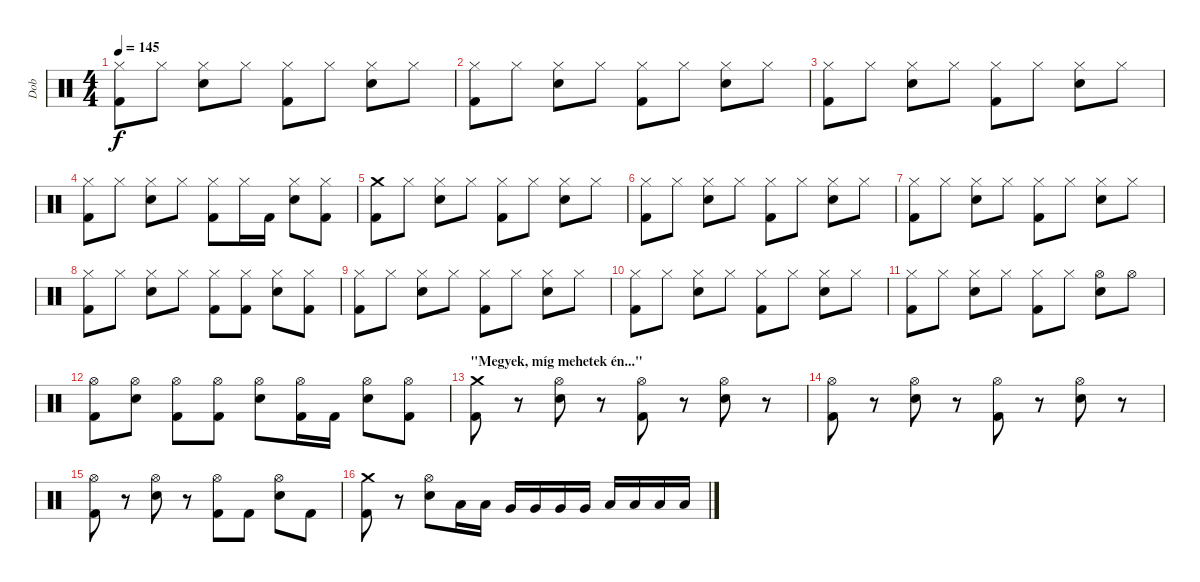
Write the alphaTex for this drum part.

\track ("Dob" "Dob") {instrument percussion}
\staff {score}
\articulation defaults
\ts (4 4)
\tempo 145
\clef neutral
\ks c
("Hi-Hat (closed)" "Kick (hit) 2").8{dy f} "Hi-Hat (closed)".8 ("Hi-Hat (closed)" "Electric Snare (hit)").8 "Hi-Hat (closed)".8 ("Hi-Hat (closed)" "Kick (hit) 2").8 "Hi-Hat (closed)".8 ("Hi-Hat (closed)" "Electric Snare (hit)").8 "Hi-Hat (closed)".8 |
("Hi-Hat (closed)" "Kick (hit) 2").8 "Hi-Hat (closed)".8 ("Hi-Hat (closed)" "Electric Snare (hit)").8 "Hi-Hat (closed)".8 ("Hi-Hat (closed)" "Kick (hit) 2").8 "Hi-Hat (closed)".8 ("Hi-Hat (closed)" "Electric Snare (hit)").8 "Hi-Hat (closed)".8 |
("Hi-Hat (closed)" "Kick (hit) 2").8 "Hi-Hat (closed)".8 ("Hi-Hat (closed)" "Electric Snare (hit)").8 "Hi-Hat (closed)".8 ("Hi-Hat (closed)" "Kick (hit) 2").8 "Hi-Hat (closed)".8 ("Hi-Hat (closed)" "Electric Snare (hit)").8 "Hi-Hat (closed)".8 |
("Hi-Hat (closed)" "Kick (hit) 2").8 "Hi-Hat (closed)".8 ("Hi-Hat (closed)" "Electric Snare (hit)").8 "Hi-Hat (closed)".8 ("Hi-Hat (closed)" "Kick (hit) 2").8 "Hi-Hat (closed)".16 "Kick (hit) 2".16 ("Hi-Hat (closed)" "Electric Snare (hit)").8 ("Hi-Hat (closed)" "Kick (hit) 2").8 |
("Crash medium (hit)" "Kick (hit) 2").8 "Hi-Hat (closed)".8 ("Hi-Hat (closed)" "Electric Snare (hit)").8 "Hi-Hat (closed)".8 ("Hi-Hat (closed)" "Kick (hit) 2").8 "Hi-Hat (closed)".8 ("Hi-Hat (closed)" "Electric Snare (hit)").8 "Hi-Hat (closed)".8 |
("Hi-Hat (closed)" "Kick (hit) 2").8 "Hi-Hat (closed)".8 ("Hi-Hat (closed)" "Electric Snare (hit)").8 "Hi-Hat (closed)".8 ("Hi-Hat (closed)" "Kick (hit) 2").8 "Hi-Hat (closed)".8 ("Hi-Hat (closed)" "Electric Snare (hit)").8 "Hi-Hat (closed)".8 |
("Hi-Hat (closed)" "Kick (hit) 2").8 "Hi-Hat (closed)".8 ("Hi-Hat (closed)" "Electric Snare (hit)").8 "Hi-Hat (closed)".8 ("Hi-Hat (closed)" "Kick (hit) 2").8 "Hi-Hat (closed)".8 ("Hi-Hat (closed)" "Electric Snare (hit)").8 "Hi-Hat (closed)".8 |
("Hi-Hat (closed)" "Kick (hit) 2").8 "Hi-Hat (closed)".8 ("Hi-Hat (closed)" "Electric Snare (hit)").8 "Hi-Hat (closed)".8 ("Hi-Hat (closed)" "Kick (hit) 2").8 ("Hi-Hat (closed)" "Kick (hit) 2").8 ("Hi-Hat (closed)" "Electric Snare (hit)").8 ("Hi-Hat (closed)" "Kick (hit) 2").8 |
("Hi-Hat (closed)" "Kick (hit) 2").8 "Hi-Hat (closed)".8 ("Hi-Hat (closed)" "Electric Snare (hit)").8 "Hi-Hat (closed)".8 ("Hi-Hat (closed)" "Kick (hit) 2").8 "Hi-Hat (closed)".8 ("Hi-Hat (closed)" "Electric Snare (hit)").8 "Hi-Hat (closed)".8 |
("Hi-Hat (closed)" "Kick (hit) 2").8 "Hi-Hat (closed)".8 ("Hi-Hat (closed)" "Electric Snare (hit)").8 "Hi-Hat (closed)".8 ("Hi-Hat (closed)" "Kick (hit) 2").8 "Hi-Hat (closed)".8 ("Hi-Hat (closed)" "Electric Snare (hit)").8 "Hi-Hat (closed)".8 |
("Hi-Hat (closed)" "Kick (hit) 2").8 "Hi-Hat (closed)".8 ("Hi-Hat (closed)" "Electric Snare (hit)").8 "Hi-Hat (closed)".8 ("Hi-Hat (closed)" "Kick (hit) 2").8 "Hi-Hat (closed)".8 ("Hi-Hat (open)" "Electric Snare (hit)").8 "Hi-Hat (open)".8 |
("Hi-Hat (open)" "Kick (hit) 2").8 ("Hi-Hat (open)" "Electric Snare (hit)").8 ("Hi-Hat (open)" "Kick (hit) 2").8 ("Hi-Hat (open)" "Kick (hit) 2").8 ("Hi-Hat (open)" "Electric Snare (hit)").8 ("Hi-Hat (open)" "Kick (hit) 2").16 "Kick (hit) 2".16 ("Hi-Hat (open)" "Electric Snare (hit)").8 ("Hi-Hat (open)" "Kick (hit) 2").8 |
\section ("" "\"Megyek, míg mehetek én...\" ")
("Crash medium (hit)" "Kick (hit) 2").8 r.8 ("Hi-Hat (open)" "Electric Snare (hit)").8 r.8 ("Hi-Hat (open)" "Kick (hit) 2").8 r.8 ("Hi-Hat (open)" "Electric Snare (hit)").8 r.8 |
("Hi-Hat (open)" "Kick (hit) 2").8 r.8 ("Hi-Hat (open)" "Electric Snare (hit)").8 r.8 ("Hi-Hat (open)" "Kick (hit) 2").8 r.8 ("Hi-Hat (open)" "Electric Snare (hit)").8 r.8 |
("Hi-Hat (open)" "Kick (hit) 2").8 r.8 ("Hi-Hat (open)" "Electric Snare (hit)").8 r.8 ("Hi-Hat (open)" "Kick (hit) 2").8 "Kick (hit) 2".8 ("Hi-Hat (open)" "Electric Snare (hit)").8 "Kick (hit) 2".8 |
("Crash medium (hit)" "Kick (hit) 2").8 r.8 ("Hi-Hat (open)" "Electric Snare (hit)").8 "Low Tom (hit)".16 "Low Tom (hit)".16 "Very Low Tom (hit)".16 "Very Low Tom (hit)".16 "Very Low Tom (hit)".16 "Very Low Tom (hit)".16 "Low Floor Tom (hit)".16 "Low Floor Tom (hit)".16 "Low Floor Tom (hit)".16 "Low Floor Tom (hit)".16
